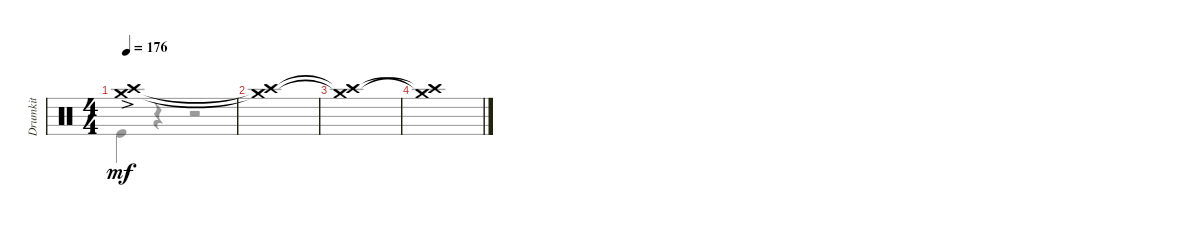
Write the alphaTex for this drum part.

\track ("Drumkit" "Drumkit") {instrument percussion}
\staff {score}
\articulation defaults
\voice
\ts (4 4)
\tempo 176
\clef neutral
\ks c
("Crash medium (hit)"{ac} "Crash high (hit)"{ac}).1{dy mf} |
("Crash medium (hit)"{t} "Crash high (hit)"{t}).1 |
("Crash medium (hit)"{t} "Crash high (hit)"{t}).1 |
("Crash high (hit)"{t} "Crash medium (hit)"{t}).1
\voice
\clef neutral
\ottava regular
\simile none
\ks c "Kick (hit)".4{dy mf}
r.4 r.2 |
|
|
